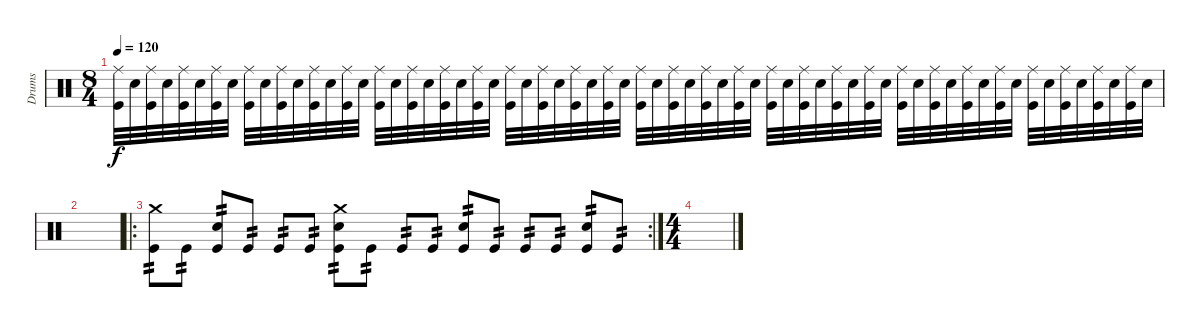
\track ("Drums" "Drums") {instrument percussion}
\staff {score}
\articulation defaults
\ts (8 4)
\tempo 120
\clef neutral
\ks c
("Ride (middle)" "Kick (hit)").32{dy f} "Electric Snare (hit)".32 ("Ride (middle)" "Kick (hit)").32 "Electric Snare (hit)".32 ("Ride (middle)" "Kick (hit)").32 "Electric Snare (hit)".32 ("Ride (middle)" "Kick (hit)").32 "Electric Snare (hit)".32 ("Ride (middle)" "Kick (hit)").32 "Electric Snare (hit)".32 ("Ride (middle)" "Kick (hit)").32 "Electric Snare (hit)".32 ("Ride (middle)" "Kick (hit)").32 "Electric Snare (hit)".32 ("Ride (middle)" "Kick (hit)").32 "Electric Snare (hit)".32 ("Ride (middle)" "Kick (hit)").32 "Electric Snare (hit)".32 ("Ride (middle)" "Kick (hit)").32 "Electric Snare (hit)".32 ("Ride (middle)" "Kick (hit)").32 "Electric Snare (hit)".32 ("Ride (middle)" "Kick (hit)").32 "Electric Snare (hit)".32 ("Ride (middle)" "Kick (hit)").32 "Electric Snare (hit)".32 ("Ride (middle)" "Kick (hit)").32 "Electric Snare (hit)".32 ("Ride (middle)" "Kick (hit)").32 "Electric Snare (hit)".32 ("Ride (middle)" "Kick (hit)").32 "Electric Snare (hit)".32 ("Ride (middle)" "Kick (hit)").32 "Electric Snare (hit)".32 ("Ride (middle)" "Kick (hit)").32 "Electric Snare (hit)".32 ("Ride (middle)" "Kick (hit)").32 "Electric Snare (hit)".32 ("Ride (middle)" "Kick (hit)").32 "Electric Snare (hit)".32 ("Ride (middle)" "Kick (hit)").32 "Electric Snare (hit)".32 ("Ride (middle)" "Kick (hit)").32 "Electric Snare (hit)".32 ("Ride (middle)" "Kick (hit)").32 "Electric Snare (hit)".32 ("Ride (middle)" "Kick (hit)").32 "Electric Snare (hit)".32 ("Ride (middle)" "Kick (hit)").32 "Electric Snare (hit)".32 ("Ride (middle)" "Kick (hit)").32 "Electric Snare (hit)".32 ("Ride (middle)" "Kick (hit)").32 "Electric Snare (hit)".32 ("Ride (middle)" "Kick (hit)").32 "Electric Snare (hit)".32 ("Ride (middle)" "Kick (hit)").32 "Electric Snare (hit)".32 ("Ride (middle)" "Kick (hit)").32 "Electric Snare (hit)".32 ("Ride (middle)" "Kick (hit)").32 "Electric Snare (hit)".32 ("Ride (middle)" "Kick (hit)").32 "Electric Snare (hit)".32 |
|
\ro
\rc 2
("Crash medium (hit)" "Kick (hit)").8{tp 2} "Kick (hit)".8{tp 2} ("Electric Snare (hit)" "Kick (hit)").8{tp 2} "Kick (hit)".8{tp 2} "Kick (hit)".8{tp 2} "Kick (hit)".8{tp 2} ("Crash medium (hit)" "Electric Snare (hit)" "Kick (hit)").8{tp 2} "Kick (hit)".8{tp 2} "Kick (hit)".8{tp 2} "Kick (hit)".8{tp 2} ("Electric Snare (hit)" "Kick (hit)").8{tp 2} "Kick (hit)".8{tp 2} "Kick (hit)".8{tp 2} "Kick (hit)".8{tp 2} ("Electric Snare (hit)" "Kick (hit)").8{tp 2} "Kick (hit)".8{tp 2} |
\ts (4 4)
